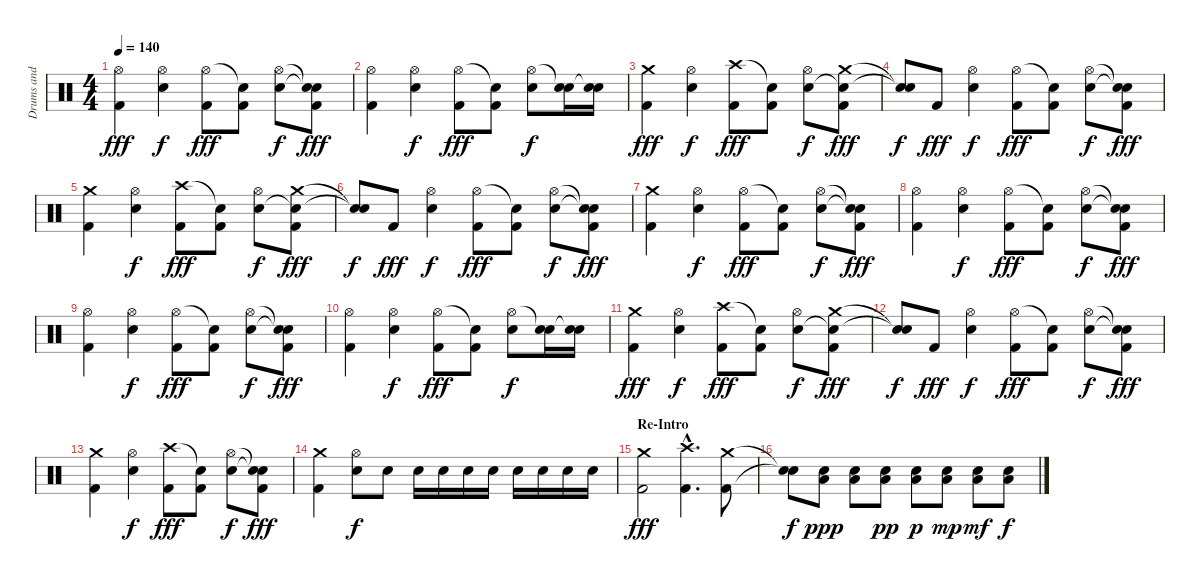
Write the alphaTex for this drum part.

\track ("Drums and Percussion" "Drums and ") {instrument percussion}
\staff {score}
\articulation defaults
\ts (4 4)
\tempo 140
\clef neutral
\ks c
("Hi-Hat (open)" "Kick (hit) 2").4{dy fff} ("Hi-Hat (open)" "Snare (hit) 2").4{dy f} ("Hi-Hat (open)" "Kick (hit) 2").8{dy fff} ("Snare (hit)"{t} "Kick (hit) 2").8 ("Hi-Hat (open)" "Snare (hit) 2").8{dy f} ("Snare (hit)"{t} "Snare (hit)"{t} "Kick (hit) 2").8{dy fff} |
("Hi-Hat (open)" "Kick (hit) 2").4 ("Hi-Hat (open)" "Snare (hit) 2").4{dy f} ("Hi-Hat (open)" "Kick (hit) 2").8{dy fff} ("Snare (hit)"{t} "Kick (hit) 2").8 ("Hi-Hat (open)" "Snare (hit) 2").8{dy f} ("Snare (hit)"{t} "Snare (hit) 2").16 ("Snare (hit)"{t} "Snare (hit) 2").16 |
("Crash medium (hit)" "Kick (hit) 2").4{dy fff} ("Hi-Hat (open)" "Snare (hit) 2").4{dy f} ("Crash high (hit)" "Kick (hit) 2").8{dy fff} ("Snare (hit)"{t} "Kick (hit) 2").8 ("Hi-Hat (open)" "Snare (hit) 2").8{dy f} ("Crash medium (hit)" "Snare (hit)"{t} "Kick (hit) 2").8{dy fff} |
("Snare (hit)"{t} "Snare (hit)"{t}).8{dy f} "Kick (hit) 2".8{dy fff} ("Hi-Hat (open)" "Snare (hit) 2").4{dy f} ("Hi-Hat (open)" "Kick (hit) 2").8{dy fff} ("Snare (hit)"{t} "Kick (hit) 2").8 ("Hi-Hat (open)" "Snare (hit) 2").8{dy f} ("Snare (hit)"{t} "Snare (hit)"{t} "Kick (hit) 2").8{dy fff} |
("Crash medium (hit)" "Kick (hit) 2").4 ("Hi-Hat (open)" "Snare (hit) 2").4{dy f} ("Crash high (hit)" "Kick (hit) 2").8{dy fff} ("Snare (hit)"{t} "Kick (hit) 2").8 ("Hi-Hat (open)" "Snare (hit) 2").8{dy f} ("Crash medium (hit)" "Snare (hit)"{t} "Kick (hit) 2").8{dy fff} |
("Snare (hit)"{t} "Snare (hit)"{t}).8{dy f} "Kick (hit) 2".8{dy fff} ("Hi-Hat (open)" "Snare (hit) 2").4{dy f} ("Hi-Hat (open)" "Kick (hit) 2").8{dy fff} ("Snare (hit)"{t} "Kick (hit) 2").8 ("Hi-Hat (open)" "Snare (hit) 2").8{dy f} ("Snare (hit)"{t} "Snare (hit)"{t} "Kick (hit) 2").8{dy fff} |
("Crash medium (hit)" "Kick (hit) 2").4 ("Hi-Hat (open)" "Snare (hit) 2").4{dy f} ("Hi-Hat (open)" "Kick (hit) 2").8{dy fff} ("Snare (hit)"{t} "Kick (hit) 2").8 ("Hi-Hat (open)" "Snare (hit) 2").8{dy f} ("Snare (hit)"{t} "Snare (hit)"{t} "Kick (hit) 2").8{dy fff} |
("Hi-Hat (open)" "Kick (hit) 2").4 ("Hi-Hat (open)" "Snare (hit) 2").4{dy f} ("Hi-Hat (open)" "Kick (hit) 2").8{dy fff} ("Snare (hit)"{t} "Kick (hit) 2").8 ("Hi-Hat (open)" "Snare (hit) 2").8{dy f} ("Snare (hit)"{t} "Snare (hit)"{t} "Kick (hit) 2").8{dy fff} |
("Hi-Hat (open)" "Kick (hit) 2").4 ("Hi-Hat (open)" "Snare (hit) 2").4{dy f} ("Hi-Hat (open)" "Kick (hit) 2").8{dy fff} ("Snare (hit)"{t} "Kick (hit) 2").8 ("Hi-Hat (open)" "Snare (hit) 2").8{dy f} ("Snare (hit)"{t} "Snare (hit)"{t} "Kick (hit) 2").8{dy fff} |
("Hi-Hat (open)" "Kick (hit) 2").4 ("Hi-Hat (open)" "Snare (hit) 2").4{dy f} ("Hi-Hat (open)" "Kick (hit) 2").8{dy fff} ("Snare (hit)"{t} "Kick (hit) 2").8 ("Hi-Hat (open)" "Snare (hit) 2").8{dy f} ("Snare (hit)"{t} "Snare (hit) 2").16 ("Snare (hit)"{t} "Snare (hit) 2").16 |
("Crash medium (hit)" "Kick (hit) 2").4{dy fff} ("Hi-Hat (open)" "Snare (hit) 2").4{dy f} ("Crash high (hit)" "Kick (hit) 2").8{dy fff} ("Snare (hit)"{t} "Kick (hit) 2").8 ("Hi-Hat (open)" "Snare (hit) 2").8{dy f} ("Crash medium (hit)" "Snare (hit)"{t} "Kick (hit) 2").8{dy fff} |
("Snare (hit)"{t} "Snare (hit)"{t}).8{dy f} "Kick (hit) 2".8{dy fff} ("Hi-Hat (open)" "Snare (hit) 2").4{dy f} ("Hi-Hat (open)" "Kick (hit) 2").8{dy fff} ("Snare (hit)"{t} "Kick (hit) 2").8 ("Hi-Hat (open)" "Snare (hit) 2").8{dy f} ("Snare (hit)"{t} "Snare (hit)"{t} "Kick (hit) 2").8{dy fff} |
("Crash medium (hit)" "Kick (hit) 2").4 ("Hi-Hat (open)" "Snare (hit) 2").4{dy f} ("Crash high (hit)" "Kick (hit) 2").8{dy fff} ("Snare (hit)"{t} "Kick (hit) 2").8 ("Hi-Hat (open)" "Snare (hit) 2").8{dy f} ("Snare (hit)"{t} "Snare (hit)"{t} "Kick (hit) 2").8{dy fff} |
("Crash medium (hit)" "Kick (hit) 2").4 ("Hi-Hat (open)" "Snare (hit) 2").8{dy f} "Snare (hit) 2".8 "Snare (hit) 2".16 "Snare (hit) 2".16 "Snare (hit) 2".16 "Snare (hit) 2".16 "Snare (hit) 2".16 "Snare (hit) 2".16 "Snare (hit) 2".16 "Snare (hit) 2".16 |
\section ("" "Re-Intro")
("Crash medium (hit)" "Kick (hit) 2").2{dy fff} ("Crash high (hit)"{hac} "Kick (hit) 2"{hac}).4{d} ("Crash medium (hit)" "Kick (hit) 2").8 |
("Snare (hit)"{t} "Snare (hit)"{t}).8{dy f} ("Snare (hit) 2" "Low Floor Tom (hit)").8{dy ppp} ("Snare (hit) 2" "Low Floor Tom (hit)").8 ("Snare (hit) 2" "Low Floor Tom (hit)").8{dy pp} ("Snare (hit) 2" "Low Floor Tom (hit)").8{dy p} ("Snare (hit) 2" "Low Floor Tom (hit)").8{dy mp} ("Snare (hit) 2" "Low Floor Tom (hit)").8{dy mf} ("Snare (hit) 2" "Low Floor Tom (hit)").8{dy f}
